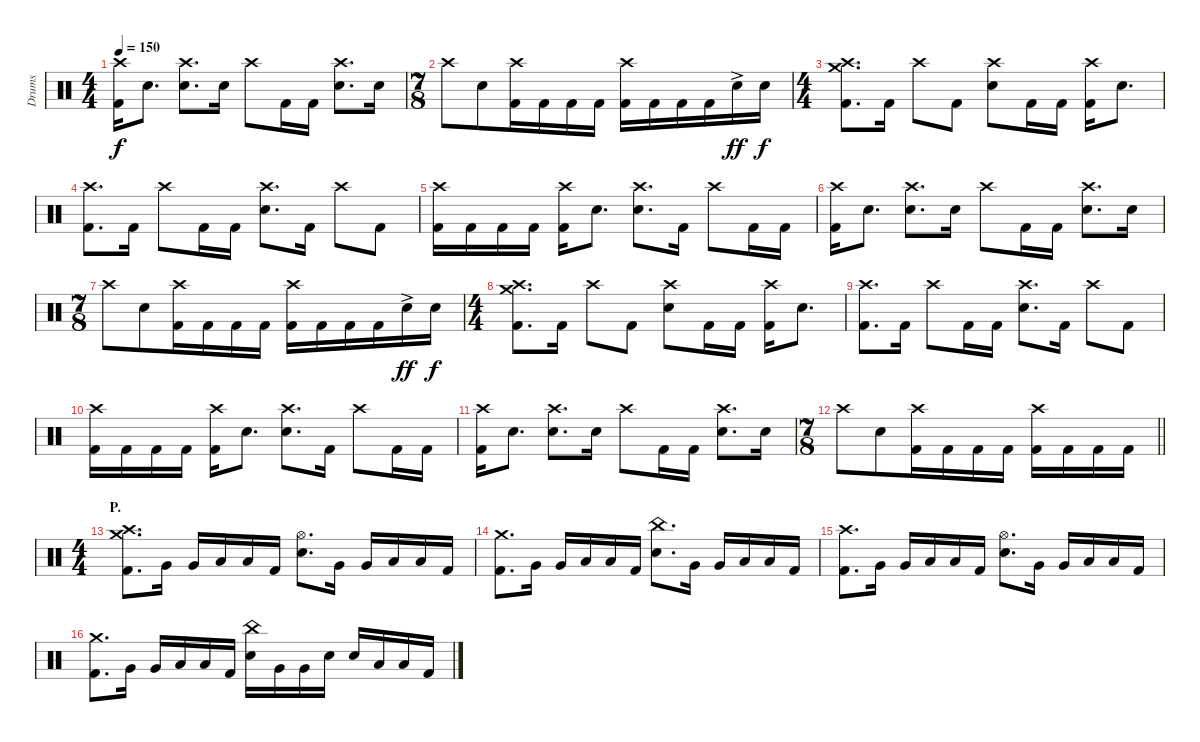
\track ("Drums" "Drums") {instrument percussion}
\staff {score}
\articulation defaults
\ts (4 4)
\tempo 150
\clef neutral
\ks c
("Crash high (hit)" "Kick (hit) 2").16{dy f} "Electric Snare (hit)".8{d} ("Crash high (hit)" "Electric Snare (hit)").8{d} "Electric Snare (hit)".16 "Crash high (hit)".8 "Kick (hit) 2".16 "Kick (hit) 2".16 ("Crash high (hit)" "Electric Snare (hit)").8{d} "Electric Snare (hit)".16 |
\ts (7 8)
"Crash high (hit)".8 "Electric Snare (hit)".8 ("Crash high (hit)" "Kick (hit) 2").16 "Kick (hit) 2".16 "Kick (hit) 2".16 "Kick (hit) 2".16 ("Crash high (hit)" "Kick (hit) 2").16 "Kick (hit) 2".16 "Kick (hit) 2".16 "Kick (hit) 2".16 "Electric Snare (hit)"{ac}.16{dy ff} "Electric Snare (hit)".16{dy f} |
\ts (4 4)
("Crash medium (hit)" "Crash high (hit)" "Kick (hit) 2").8{d} "Kick (hit) 2".16 "Crash high (hit)".8 "Kick (hit) 2".8 ("Crash high (hit)" "Electric Snare (hit)").8 "Kick (hit) 2".16 "Kick (hit) 2".16 ("Crash high (hit)" "Kick (hit) 2").16 "Electric Snare (hit)".8{d} |
("Crash high (hit)" "Kick (hit) 2").8{d} "Kick (hit) 2".16 "Crash high (hit)".8 "Kick (hit) 2".16 "Kick (hit) 2".16 ("Crash high (hit)" "Electric Snare (hit)").8{d} "Kick (hit) 2".16 "Crash high (hit)".8 "Kick (hit) 2".8 |
("Crash high (hit)" "Kick (hit) 2").16 "Kick (hit) 2".16 "Kick (hit) 2".16 "Kick (hit) 2".16 ("Crash high (hit)" "Kick (hit) 2").16 "Electric Snare (hit)".8{d} ("Crash high (hit)" "Electric Snare (hit)").8{d} "Kick (hit) 2".16 "Crash high (hit)".8 "Kick (hit) 2".16 "Kick (hit) 2".16 |
("Crash high (hit)" "Kick (hit) 2").16 "Electric Snare (hit)".8{d} ("Crash high (hit)" "Electric Snare (hit)").8{d} "Electric Snare (hit)".16 "Crash high (hit)".8 "Kick (hit) 2".16 "Kick (hit) 2".16 ("Crash high (hit)" "Electric Snare (hit)").8{d} "Electric Snare (hit)".16 |
\ts (7 8)
"Crash high (hit)".8 "Electric Snare (hit)".8 ("Crash high (hit)" "Kick (hit) 2").16 "Kick (hit) 2".16 "Kick (hit) 2".16 "Kick (hit) 2".16 ("Crash high (hit)" "Kick (hit) 2").16 "Kick (hit) 2".16 "Kick (hit) 2".16 "Kick (hit) 2".16 "Electric Snare (hit)"{ac}.16{dy ff} "Electric Snare (hit)".16{dy f} |
\ts (4 4)
("Crash medium (hit)" "Crash high (hit)" "Kick (hit) 2").8{d} "Kick (hit) 2".16 "Crash high (hit)".8 "Kick (hit) 2".8 ("Crash high (hit)" "Electric Snare (hit)").8 "Kick (hit) 2".16 "Kick (hit) 2".16 ("Crash high (hit)" "Kick (hit) 2").16 "Electric Snare (hit)".8{d} |
("Crash high (hit)" "Kick (hit) 2").8{d} "Kick (hit) 2".16 "Crash high (hit)".8 "Kick (hit) 2".16 "Kick (hit) 2".16 ("Crash high (hit)" "Electric Snare (hit)").8{d} "Kick (hit) 2".16 "Crash high (hit)".8 "Kick (hit) 2".8 |
("Crash high (hit)" "Kick (hit) 2").16 "Kick (hit) 2".16 "Kick (hit) 2".16 "Kick (hit) 2".16 ("Crash high (hit)" "Kick (hit) 2").16 "Electric Snare (hit)".8{d} ("Crash high (hit)" "Electric Snare (hit)").8{d} "Kick (hit) 2".16 "Crash high (hit)".8 "Kick (hit) 2".16 "Kick (hit) 2".16 |
("Crash high (hit)" "Kick (hit) 2").16 "Electric Snare (hit)".8{d} ("Crash high (hit)" "Electric Snare (hit)").8{d} "Electric Snare (hit)".16 "Crash high (hit)".8 "Kick (hit) 2".16 "Kick (hit) 2".16 ("Crash high (hit)" "Electric Snare (hit)").8{d} "Electric Snare (hit)".16 |
\ts (7 8)
\barLineRight lightlight "Crash high (hit)".8 "Electric Snare (hit)".8
("Crash high (hit)" "Kick (hit) 2").16 "Kick (hit) 2".16 "Kick (hit) 2".16 "Kick (hit) 2".16 ("Crash high (hit)" "Kick (hit) 2").16 "Kick (hit) 2".16 "Kick (hit) 2".16 "Kick (hit) 2".16 |
\ts (4 4)
\section ("" "P.")
("Crash medium (hit)" "Crash high (hit)" "Kick (hit) 2").8{d} "Very Low Tom (hit)".16 "Very Low Tom (hit)".16 "Low Floor Tom (hit)".16 "Low Floor Tom (hit)".16 "Kick (hit) 2".16 ("Hi-Hat (open)" "Electric Snare (hit)").8{d} "Very Low Tom (hit)".16 "Very Low Tom (hit)".16 "Low Floor Tom (hit)".16 "Low Floor Tom (hit)".16 "Kick (hit) 2".16 |
("Crash medium (hit)" "Kick (hit) 2").8{d} "Very Low Tom (hit)".16 "Very Low Tom (hit)".16 "Low Floor Tom (hit)".16 "Low Floor Tom (hit)".16 "Kick (hit) 2".16 ("China (hit)" "Electric Snare (hit)").8{d} "Very Low Tom (hit)".16 "Very Low Tom (hit)".16 "Low Floor Tom (hit)".16 "Low Floor Tom (hit)".16 "Kick (hit) 2".16 |
("Crash high (hit)" "Kick (hit) 2").8{d} "Very Low Tom (hit)".16 "Very Low Tom (hit)".16 "Low Floor Tom (hit)".16 "Low Floor Tom (hit)".16 "Kick (hit) 2".16 ("Hi-Hat (open)" "Electric Snare (hit)").8{d} "Very Low Tom (hit)".16 "Very Low Tom (hit)".16 "Low Floor Tom (hit)".16 "Low Floor Tom (hit)".16 "Kick (hit) 2".16 |
("Crash medium (hit)" "Kick (hit) 2").8{d} "Very Low Tom (hit)".16 "Very Low Tom (hit)".16 "Low Floor Tom (hit)".16 "Low Floor Tom (hit)".16 "Kick (hit) 2".16 ("China (hit)" "Electric Snare (hit)").16 "Very Low Tom (hit)".16 "Very Low Tom (hit)".16 "Electric Snare (hit)".16 "Electric Snare (hit)".16 "Low Floor Tom (hit)".16 "Low Floor Tom (hit)".16 "Kick (hit) 2".16
